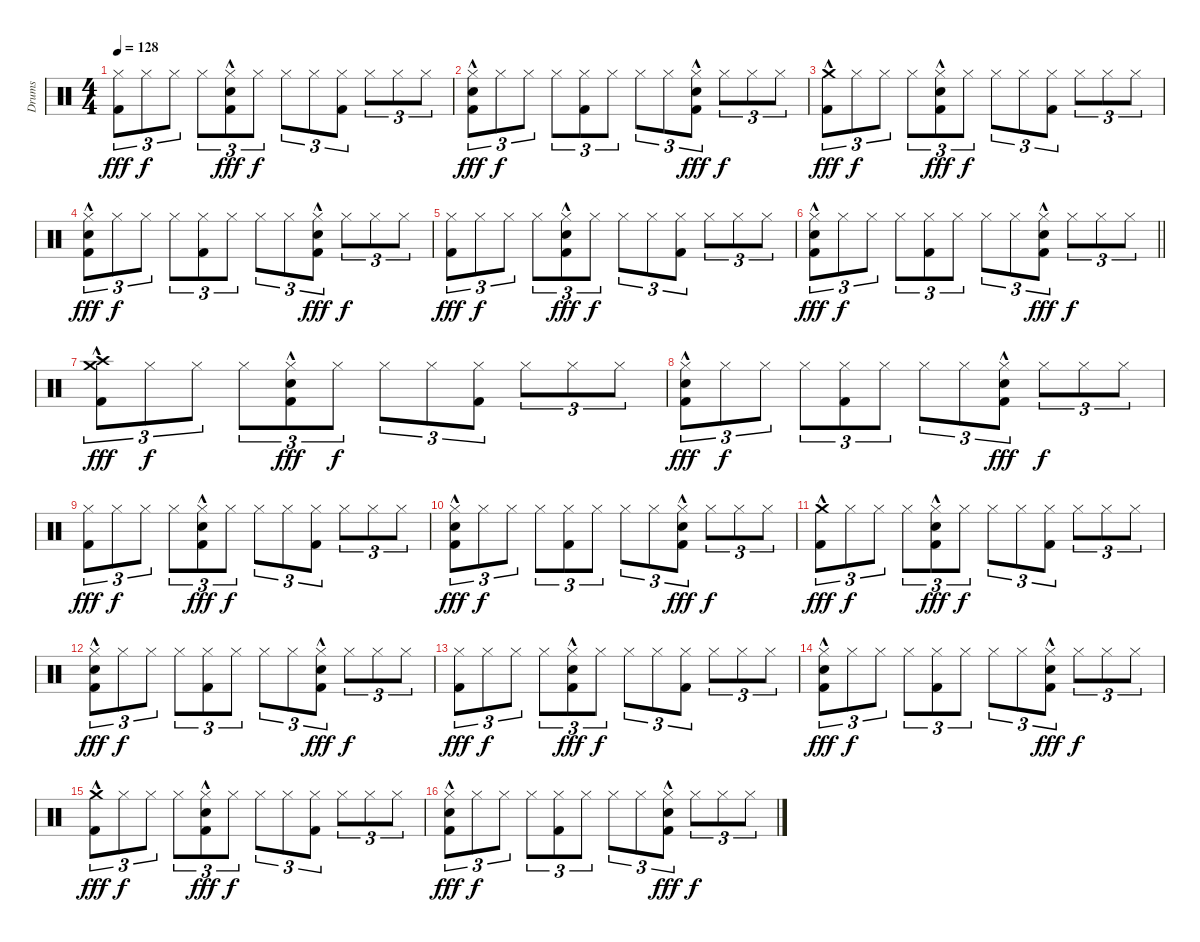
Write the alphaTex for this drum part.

\track ("Drums" "Drums") {instrument percussion}
\staff {score}
\articulation defaults
\ts (4 4)
\tempo 128
\clef neutral
\ks c
("Hi-Hat (closed)" "Kick (hit) 2").8{tu (3 2) dy fff} "Hi-Hat (closed)".8{tu (3 2) dy f} "Hi-Hat (closed)".8{tu (3 2)} "Hi-Hat (closed)".8{tu (3 2)} ("Hi-Hat (closed)" "Snare (hit) 2"{hac} "Kick (hit) 2").8{tu (3 2) dy fff} "Hi-Hat (closed)".8{tu (3 2) dy f} "Hi-Hat (closed)".8{tu (3 2)} "Hi-Hat (closed)".8{tu (3 2)} ("Hi-Hat (closed)" "Kick (hit) 2").8{tu (3 2)} "Hi-Hat (closed)".8{tu (3 2)} "Hi-Hat (closed)".8{tu (3 2)} "Hi-Hat (closed)".8{tu (3 2)} |
("Hi-Hat (closed)" "Snare (hit) 2"{hac} "Kick (hit) 2").8{tu (3 2) dy fff} "Hi-Hat (closed)".8{tu (3 2) dy f} "Hi-Hat (closed)".8{tu (3 2)} "Hi-Hat (closed)".8{tu (3 2)} ("Hi-Hat (closed)" "Kick (hit) 2").8{tu (3 2)} "Hi-Hat (closed)".8{tu (3 2)} "Hi-Hat (closed)".8{tu (3 2)} "Hi-Hat (closed)".8{tu (3 2)} ("Hi-Hat (closed)" "Snare (hit) 2"{hac} "Kick (hit) 2").8{tu (3 2) dy fff} "Hi-Hat (closed)".8{tu (3 2) dy f} "Hi-Hat (closed)".8{tu (3 2)} "Hi-Hat (closed)".8{tu (3 2)} |
("Crash medium (hit)"{hac} "Kick (hit) 2").8{tu (3 2) dy fff} "Hi-Hat (closed)".8{tu (3 2) dy f} "Hi-Hat (closed)".8{tu (3 2)} "Hi-Hat (closed)".8{tu (3 2)} ("Hi-Hat (closed)" "Snare (hit) 2"{hac} "Kick (hit) 2").8{tu (3 2) dy fff} "Hi-Hat (closed)".8{tu (3 2) dy f} "Hi-Hat (closed)".8{tu (3 2)} "Hi-Hat (closed)".8{tu (3 2)} ("Hi-Hat (closed)" "Kick (hit) 2").8{tu (3 2)} "Hi-Hat (closed)".8{tu (3 2)} "Hi-Hat (closed)".8{tu (3 2)} "Hi-Hat (closed)".8{tu (3 2)} |
("Hi-Hat (closed)" "Snare (hit) 2"{hac} "Kick (hit) 2").8{tu (3 2) dy fff} "Hi-Hat (closed)".8{tu (3 2) dy f} "Hi-Hat (closed)".8{tu (3 2)} "Hi-Hat (closed)".8{tu (3 2)} ("Hi-Hat (closed)" "Kick (hit) 2").8{tu (3 2)} "Hi-Hat (closed)".8{tu (3 2)} "Hi-Hat (closed)".8{tu (3 2)} "Hi-Hat (closed)".8{tu (3 2)} ("Hi-Hat (closed)" "Snare (hit) 2"{hac} "Kick (hit) 2").8{tu (3 2) dy fff} "Hi-Hat (closed)".8{tu (3 2) dy f} "Hi-Hat (closed)".8{tu (3 2)} "Hi-Hat (closed)".8{tu (3 2)} |
("Hi-Hat (closed)" "Kick (hit) 2").8{tu (3 2) dy fff} "Hi-Hat (closed)".8{tu (3 2) dy f} "Hi-Hat (closed)".8{tu (3 2)} "Hi-Hat (closed)".8{tu (3 2)} ("Hi-Hat (closed)" "Snare (hit) 2"{hac} "Kick (hit) 2").8{tu (3 2) dy fff} "Hi-Hat (closed)".8{tu (3 2) dy f} "Hi-Hat (closed)".8{tu (3 2)} "Hi-Hat (closed)".8{tu (3 2)} ("Hi-Hat (closed)" "Kick (hit) 2").8{tu (3 2)} "Hi-Hat (closed)".8{tu (3 2)} "Hi-Hat (closed)".8{tu (3 2)} "Hi-Hat (closed)".8{tu (3 2)} |
\barLineRight lightlight
("Hi-Hat (closed)" "Snare (hit) 2"{hac} "Kick (hit) 2").8{tu (3 2) dy fff} "Hi-Hat (closed)".8{tu (3 2) dy f} "Hi-Hat (closed)".8{tu (3 2)} "Hi-Hat (closed)".8{tu (3 2)} ("Hi-Hat (closed)" "Kick (hit) 2").8{tu (3 2)} "Hi-Hat (closed)".8{tu (3 2)} "Hi-Hat (closed)".8{tu (3 2)} "Hi-Hat (closed)".8{tu (3 2)} ("Hi-Hat (closed)" "Snare (hit) 2"{hac} "Kick (hit) 2").8{tu (3 2) dy fff} "Hi-Hat (closed)".8{tu (3 2) dy f} "Hi-Hat (closed)".8{tu (3 2)} "Hi-Hat (closed)".8{tu (3 2)} |
\section ("" "")
("Crash high (hit)"{hac} "Crash medium (hit)"{hac} "Kick (hit) 2").8{tu (3 2) dy fff} "Hi-Hat (closed)".8{tu (3 2) dy f} "Hi-Hat (closed)".8{tu (3 2)} "Hi-Hat (closed)".8{tu (3 2)} ("Hi-Hat (closed)" "Snare (hit) 2"{hac} "Kick (hit) 2").8{tu (3 2) dy fff} "Hi-Hat (closed)".8{tu (3 2) dy f} "Hi-Hat (closed)".8{tu (3 2)} "Hi-Hat (closed)".8{tu (3 2)} ("Hi-Hat (closed)" "Kick (hit) 2").8{tu (3 2)} "Hi-Hat (closed)".8{tu (3 2)} "Hi-Hat (closed)".8{tu (3 2)} "Hi-Hat (closed)".8{tu (3 2)} |
("Hi-Hat (closed)" "Snare (hit) 2"{hac} "Kick (hit) 2").8{tu (3 2) dy fff} "Hi-Hat (closed)".8{tu (3 2) dy f} "Hi-Hat (closed)".8{tu (3 2)} "Hi-Hat (closed)".8{tu (3 2)} ("Hi-Hat (closed)" "Kick (hit) 2").8{tu (3 2)} "Hi-Hat (closed)".8{tu (3 2)} "Hi-Hat (closed)".8{tu (3 2)} "Hi-Hat (closed)".8{tu (3 2)} ("Hi-Hat (closed)" "Snare (hit) 2"{hac} "Kick (hit) 2").8{tu (3 2) dy fff} "Hi-Hat (closed)".8{tu (3 2) dy f} "Hi-Hat (closed)".8{tu (3 2)} "Hi-Hat (closed)".8{tu (3 2)} |
("Hi-Hat (closed)" "Kick (hit) 2").8{tu (3 2) dy fff} "Hi-Hat (closed)".8{tu (3 2) dy f} "Hi-Hat (closed)".8{tu (3 2)} "Hi-Hat (closed)".8{tu (3 2)} ("Hi-Hat (closed)" "Snare (hit) 2"{hac} "Kick (hit) 2").8{tu (3 2) dy fff} "Hi-Hat (closed)".8{tu (3 2) dy f} "Hi-Hat (closed)".8{tu (3 2)} "Hi-Hat (closed)".8{tu (3 2)} ("Hi-Hat (closed)" "Kick (hit) 2").8{tu (3 2)} "Hi-Hat (closed)".8{tu (3 2)} "Hi-Hat (closed)".8{tu (3 2)} "Hi-Hat (closed)".8{tu (3 2)} |
("Hi-Hat (closed)" "Snare (hit) 2"{hac} "Kick (hit) 2").8{tu (3 2) dy fff} "Hi-Hat (closed)".8{tu (3 2) dy f} "Hi-Hat (closed)".8{tu (3 2)} "Hi-Hat (closed)".8{tu (3 2)} ("Hi-Hat (closed)" "Kick (hit) 2").8{tu (3 2)} "Hi-Hat (closed)".8{tu (3 2)} "Hi-Hat (closed)".8{tu (3 2)} "Hi-Hat (closed)".8{tu (3 2)} ("Hi-Hat (closed)" "Snare (hit) 2"{hac} "Kick (hit) 2").8{tu (3 2) dy fff} "Hi-Hat (closed)".8{tu (3 2) dy f} "Hi-Hat (closed)".8{tu (3 2)} "Hi-Hat (closed)".8{tu (3 2)} |
("Crash medium (hit)"{hac} "Kick (hit) 2").8{tu (3 2) dy fff} "Hi-Hat (closed)".8{tu (3 2) dy f} "Hi-Hat (closed)".8{tu (3 2)} "Hi-Hat (closed)".8{tu (3 2)} ("Hi-Hat (closed)" "Snare (hit) 2"{hac} "Kick (hit) 2").8{tu (3 2) dy fff} "Hi-Hat (closed)".8{tu (3 2) dy f} "Hi-Hat (closed)".8{tu (3 2)} "Hi-Hat (closed)".8{tu (3 2)} ("Hi-Hat (closed)" "Kick (hit) 2").8{tu (3 2)} "Hi-Hat (closed)".8{tu (3 2)} "Hi-Hat (closed)".8{tu (3 2)} "Hi-Hat (closed)".8{tu (3 2)} |
("Hi-Hat (closed)" "Snare (hit) 2"{hac} "Kick (hit) 2").8{tu (3 2) dy fff} "Hi-Hat (closed)".8{tu (3 2) dy f} "Hi-Hat (closed)".8{tu (3 2)} "Hi-Hat (closed)".8{tu (3 2)} ("Hi-Hat (closed)" "Kick (hit) 2").8{tu (3 2)} "Hi-Hat (closed)".8{tu (3 2)} "Hi-Hat (closed)".8{tu (3 2)} "Hi-Hat (closed)".8{tu (3 2)} ("Hi-Hat (closed)" "Snare (hit) 2"{hac} "Kick (hit) 2").8{tu (3 2) dy fff} "Hi-Hat (closed)".8{tu (3 2) dy f} "Hi-Hat (closed)".8{tu (3 2)} "Hi-Hat (closed)".8{tu (3 2)} |
("Hi-Hat (closed)" "Kick (hit) 2").8{tu (3 2) dy fff} "Hi-Hat (closed)".8{tu (3 2) dy f} "Hi-Hat (closed)".8{tu (3 2)} "Hi-Hat (closed)".8{tu (3 2)} ("Hi-Hat (closed)" "Snare (hit) 2"{hac} "Kick (hit) 2").8{tu (3 2) dy fff} "Hi-Hat (closed)".8{tu (3 2) dy f} "Hi-Hat (closed)".8{tu (3 2)} "Hi-Hat (closed)".8{tu (3 2)} ("Hi-Hat (closed)" "Kick (hit) 2").8{tu (3 2)} "Hi-Hat (closed)".8{tu (3 2)} "Hi-Hat (closed)".8{tu (3 2)} "Hi-Hat (closed)".8{tu (3 2)} |
("Hi-Hat (closed)" "Snare (hit) 2"{hac} "Kick (hit) 2").8{tu (3 2) dy fff} "Hi-Hat (closed)".8{tu (3 2) dy f} "Hi-Hat (closed)".8{tu (3 2)} "Hi-Hat (closed)".8{tu (3 2)} ("Hi-Hat (closed)" "Kick (hit) 2").8{tu (3 2)} "Hi-Hat (closed)".8{tu (3 2)} "Hi-Hat (closed)".8{tu (3 2)} "Hi-Hat (closed)".8{tu (3 2)} ("Hi-Hat (closed)" "Snare (hit) 2"{hac} "Kick (hit) 2").8{tu (3 2) dy fff} "Hi-Hat (closed)".8{tu (3 2) dy f} "Hi-Hat (closed)".8{tu (3 2)} "Hi-Hat (closed)".8{tu (3 2)} |
("Crash medium (hit)"{hac} "Kick (hit) 2").8{tu (3 2) dy fff} "Hi-Hat (closed)".8{tu (3 2) dy f} "Hi-Hat (closed)".8{tu (3 2)} "Hi-Hat (closed)".8{tu (3 2)} ("Hi-Hat (closed)" "Snare (hit) 2"{hac} "Kick (hit) 2").8{tu (3 2) dy fff} "Hi-Hat (closed)".8{tu (3 2) dy f} "Hi-Hat (closed)".8{tu (3 2)} "Hi-Hat (closed)".8{tu (3 2)} ("Hi-Hat (closed)" "Kick (hit) 2").8{tu (3 2)} "Hi-Hat (closed)".8{tu (3 2)} "Hi-Hat (closed)".8{tu (3 2)} "Hi-Hat (closed)".8{tu (3 2)} |
("Hi-Hat (closed)" "Snare (hit) 2"{hac} "Kick (hit) 2").8{tu (3 2) dy fff} "Hi-Hat (closed)".8{tu (3 2) dy f} "Hi-Hat (closed)".8{tu (3 2)} "Hi-Hat (closed)".8{tu (3 2)} ("Hi-Hat (closed)" "Kick (hit) 2").8{tu (3 2)} "Hi-Hat (closed)".8{tu (3 2)} "Hi-Hat (closed)".8{tu (3 2)} "Hi-Hat (closed)".8{tu (3 2)} ("Hi-Hat (closed)" "Snare (hit) 2"{hac} "Kick (hit) 2").8{tu (3 2) dy fff} "Hi-Hat (closed)".8{tu (3 2) dy f} "Hi-Hat (closed)".8{tu (3 2)} "Hi-Hat (closed)".8{tu (3 2)}
